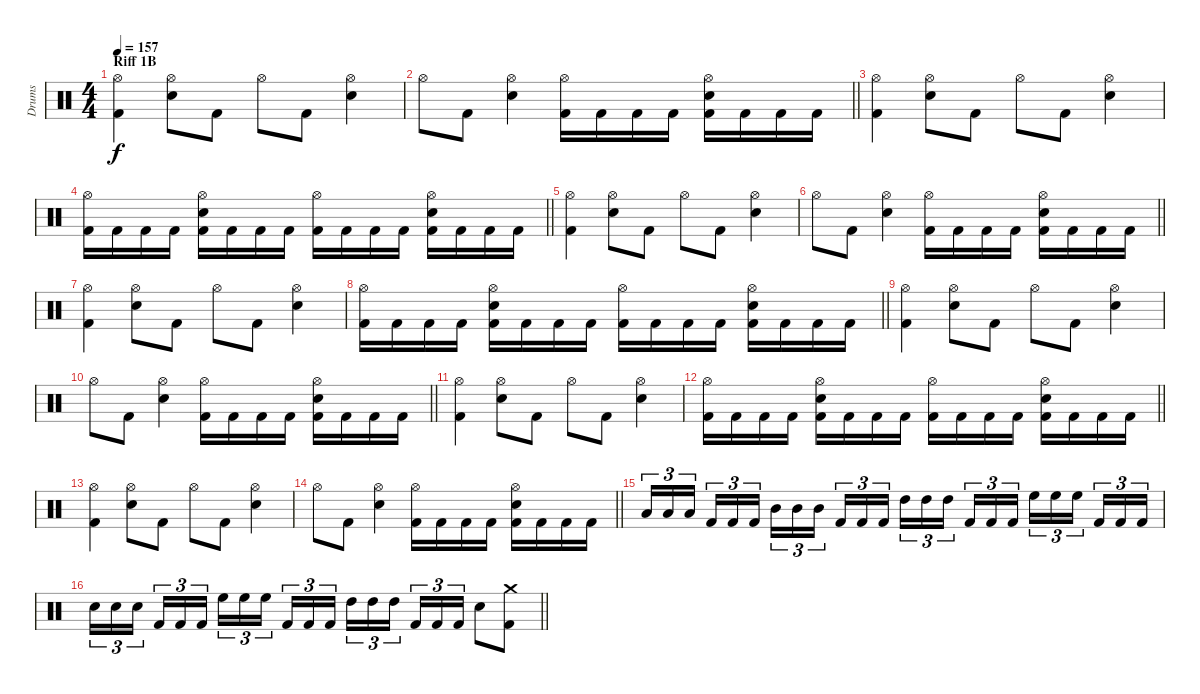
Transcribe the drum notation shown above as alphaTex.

\track ("Drums" "Drums") {instrument percussion}
\staff {score}
\articulation defaults
\ts (4 4)
\section ("" "Riff 1B")
\tempo 157
\clef neutral
\ks c
("Hi-Hat (open)" "Kick (hit) 2").4{dy f} ("Hi-Hat (open)" "Electric Snare (hit)").8 "Kick (hit) 2".8 "Hi-Hat (open)".8 "Kick (hit) 2".8 ("Hi-Hat (open)" "Electric Snare (hit)").4 |
\barLineRight lightlight "Hi-Hat (open)".8 "Kick (hit) 2".8
("Hi-Hat (open)" "Electric Snare (hit)").4 ("Hi-Hat (open)" "Kick (hit) 2").16 "Kick (hit) 2".16 "Kick (hit) 2".16 "Kick (hit) 2".16 ("Hi-Hat (open)" "Electric Snare (hit)" "Kick (hit) 2").16 "Kick (hit) 2".16 "Kick (hit) 2".16 "Kick (hit) 2".16 |
("Hi-Hat (open)" "Kick (hit) 2").4 ("Hi-Hat (open)" "Electric Snare (hit)").8 "Kick (hit) 2".8 "Hi-Hat (open)".8 "Kick (hit) 2".8 ("Hi-Hat (open)" "Electric Snare (hit)").4 |
\barLineRight lightlight
("Hi-Hat (open)" "Kick (hit) 2").16 "Kick (hit) 2".16 "Kick (hit) 2".16 "Kick (hit) 2".16 ("Hi-Hat (open)" "Electric Snare (hit)" "Kick (hit) 2").16 "Kick (hit) 2".16 "Kick (hit) 2".16 "Kick (hit) 2".16 ("Hi-Hat (open)" "Kick (hit) 2").16 "Kick (hit) 2".16 "Kick (hit) 2".16 "Kick (hit) 2".16 ("Hi-Hat (open)" "Electric Snare (hit)" "Kick (hit) 2").16 "Kick (hit) 2".16 "Kick (hit) 2".16 "Kick (hit) 2".16 |
("Hi-Hat (open)" "Kick (hit) 2").4 ("Hi-Hat (open)" "Electric Snare (hit)").8 "Kick (hit) 2".8 "Hi-Hat (open)".8 "Kick (hit) 2".8 ("Hi-Hat (open)" "Electric Snare (hit)").4 |
\barLineRight lightlight "Hi-Hat (open)".8 "Kick (hit) 2".8
("Hi-Hat (open)" "Electric Snare (hit)").4 ("Hi-Hat (open)" "Kick (hit) 2").16 "Kick (hit) 2".16 "Kick (hit) 2".16 "Kick (hit) 2".16 ("Hi-Hat (open)" "Electric Snare (hit)" "Kick (hit) 2").16 "Kick (hit) 2".16 "Kick (hit) 2".16 "Kick (hit) 2".16 |
("Hi-Hat (open)" "Kick (hit) 2").4 ("Hi-Hat (open)" "Electric Snare (hit)").8 "Kick (hit) 2".8 "Hi-Hat (open)".8 "Kick (hit) 2".8 ("Hi-Hat (open)" "Electric Snare (hit)").4 |
\barLineRight lightlight
("Hi-Hat (open)" "Kick (hit) 2").16 "Kick (hit) 2".16 "Kick (hit) 2".16 "Kick (hit) 2".16 ("Hi-Hat (open)" "Electric Snare (hit)" "Kick (hit) 2").16 "Kick (hit) 2".16 "Kick (hit) 2".16 "Kick (hit) 2".16 ("Hi-Hat (open)" "Kick (hit) 2").16 "Kick (hit) 2".16 "Kick (hit) 2".16 "Kick (hit) 2".16 ("Hi-Hat (open)" "Electric Snare (hit)" "Kick (hit) 2").16 "Kick (hit) 2".16 "Kick (hit) 2".16 "Kick (hit) 2".16 |
("Hi-Hat (open)" "Kick (hit) 2").4 ("Hi-Hat (open)" "Electric Snare (hit)").8 "Kick (hit) 2".8 "Hi-Hat (open)".8 "Kick (hit) 2".8 ("Hi-Hat (open)" "Electric Snare (hit)").4 |
\barLineRight lightlight "Hi-Hat (open)".8 "Kick (hit) 2".8
("Hi-Hat (open)" "Electric Snare (hit)").4 ("Hi-Hat (open)" "Kick (hit) 2").16 "Kick (hit) 2".16 "Kick (hit) 2".16 "Kick (hit) 2".16 ("Hi-Hat (open)" "Electric Snare (hit)" "Kick (hit) 2").16 "Kick (hit) 2".16 "Kick (hit) 2".16 "Kick (hit) 2".16 |
("Hi-Hat (open)" "Kick (hit) 2").4 ("Hi-Hat (open)" "Electric Snare (hit)").8 "Kick (hit) 2".8 "Hi-Hat (open)".8 "Kick (hit) 2".8 ("Hi-Hat (open)" "Electric Snare (hit)").4 |
\barLineRight lightlight
("Hi-Hat (open)" "Kick (hit) 2").16 "Kick (hit) 2".16 "Kick (hit) 2".16 "Kick (hit) 2".16 ("Hi-Hat (open)" "Electric Snare (hit)" "Kick (hit) 2").16 "Kick (hit) 2".16 "Kick (hit) 2".16 "Kick (hit) 2".16 ("Hi-Hat (open)" "Kick (hit) 2").16 "Kick (hit) 2".16 "Kick (hit) 2".16 "Kick (hit) 2".16 ("Hi-Hat (open)" "Electric Snare (hit)" "Kick (hit) 2").16 "Kick (hit) 2".16 "Kick (hit) 2".16 "Kick (hit) 2".16 |
("Hi-Hat (open)" "Kick (hit) 2").4 ("Hi-Hat (open)" "Electric Snare (hit)").8 "Kick (hit) 2".8 "Hi-Hat (open)".8 "Kick (hit) 2".8 ("Hi-Hat (open)" "Electric Snare (hit)").4 |
\barLineRight lightlight "Hi-Hat (open)".8 "Kick (hit) 2".8
("Hi-Hat (open)" "Electric Snare (hit)").4 ("Hi-Hat (open)" "Kick (hit) 2").16 "Kick (hit) 2".16 "Kick (hit) 2".16 "Kick (hit) 2".16 ("Hi-Hat (open)" "Electric Snare (hit)" "Kick (hit) 2").16 "Kick (hit) 2".16 "Kick (hit) 2".16 "Kick (hit) 2".16 |
"Low Tom (hit)".16{tu (3 2)} "Low Tom (hit)".16{tu (3 2)} "Low Tom (hit)".16{tu (3 2) beam splitsecondary} "Kick (hit) 2".16{tu (3 2)} "Kick (hit) 2".16{tu (3 2)} "Kick (hit) 2".16{tu (3 2)} "Mid Tom (hit)".16{tu (3 2)} "Mid Tom (hit)".16{tu (3 2)} "Mid Tom (hit)".16{tu (3 2) beam splitsecondary} "Kick (hit) 2".16{tu (3 2)} "Kick (hit) 2".16{tu (3 2)} "Kick (hit) 2".16{tu (3 2)} "High Tom (hit)".16{tu (3 2)} "High Tom (hit)".16{tu (3 2)} "High Tom (hit)".16{tu (3 2) beam splitsecondary} "Kick (hit) 2".16{tu (3 2)} "Kick (hit) 2".16{tu (3 2)} "Kick (hit) 2".16{tu (3 2)} "High Floor Tom (hit)".16{tu (3 2)} "High Floor Tom (hit)".16{tu (3 2)} "High Floor Tom (hit)".16{tu (3 2) beam splitsecondary} "Kick (hit) 2".16{tu (3 2)} "Kick (hit) 2".16{tu (3 2)} "Kick (hit) 2".16{tu (3 2)} |
\barLineRight lightlight "Electric Snare (hit)".16{tu (3 2)} "Electric Snare (hit)".16{tu (3 2)} "Electric Snare (hit)".16{tu (3 2) beam splitsecondary} "Kick (hit) 2".16{tu (3 2)} "Kick (hit) 2".16{tu (3 2)} "Kick (hit) 2".16{tu (3 2)} "High Floor Tom (hit)".16{tu (3 2)} "High Floor Tom (hit)".16{tu (3 2)} "High Floor Tom (hit)".16{tu (3 2) beam splitsecondary} "Kick (hit) 2".16{tu (3 2)} "Kick (hit) 2".16{tu (3 2)} "Kick (hit) 2".16{tu (3 2)} "High Tom (hit)".16{tu (3 2)} "High Tom (hit)".16{tu (3 2)} "High Tom (hit)".16{tu (3 2) beam splitsecondary} "Kick (hit) 2".16{tu (3 2)} "Kick (hit) 2".16{tu (3 2)} "Kick (hit) 2".16{tu (3 2)} "Electric Snare (hit)".8
("Crash medium (hit)" "Kick (hit) 2").8
